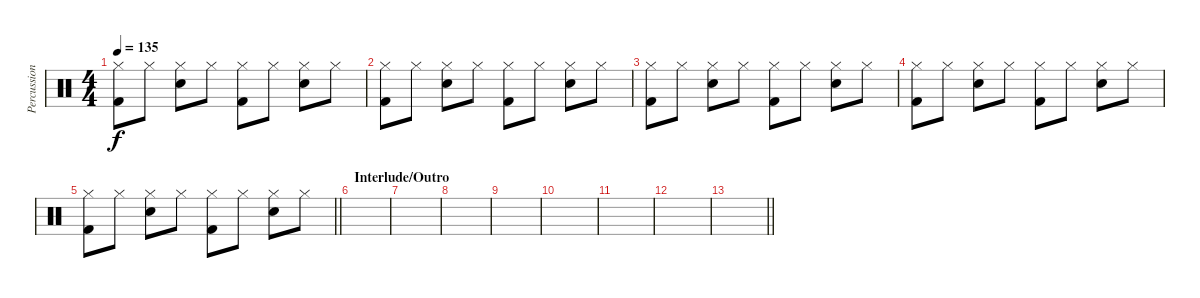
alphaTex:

\track ("Percussion" "Percussion") {instrument percussion}
\staff {score}
\articulation defaults
\ts (4 4)
\tempo 135
\clef neutral
\ks c
("Hi-Hat (closed)" "Kick (hit) 2").8{dy f} "Hi-Hat (closed)".8 ("Hi-Hat (closed)" "Snare (hit) 2").8 "Hi-Hat (closed)".8 ("Hi-Hat (closed)" "Kick (hit) 2").8 "Hi-Hat (closed)".8 ("Hi-Hat (closed)" "Snare (hit) 2").8 "Hi-Hat (closed)".8 |
("Hi-Hat (closed)" "Kick (hit) 2").8 "Hi-Hat (closed)".8 ("Hi-Hat (closed)" "Snare (hit) 2").8 "Hi-Hat (closed)".8 ("Hi-Hat (closed)" "Kick (hit) 2").8 "Hi-Hat (closed)".8 ("Hi-Hat (closed)" "Snare (hit) 2").8 "Hi-Hat (closed)".8 |
("Hi-Hat (closed)" "Kick (hit) 2").8 "Hi-Hat (closed)".8 ("Hi-Hat (closed)" "Snare (hit) 2").8 "Hi-Hat (closed)".8 ("Hi-Hat (closed)" "Kick (hit) 2").8 "Hi-Hat (closed)".8 ("Hi-Hat (closed)" "Snare (hit) 2").8 "Hi-Hat (closed)".8 |
("Hi-Hat (closed)" "Kick (hit) 2").8 "Hi-Hat (closed)".8 ("Hi-Hat (closed)" "Snare (hit) 2").8 "Hi-Hat (closed)".8 ("Hi-Hat (closed)" "Kick (hit) 2").8 "Hi-Hat (closed)".8 ("Hi-Hat (closed)" "Snare (hit) 2").8 "Hi-Hat (closed)".8 |
\barLineRight lightlight
("Hi-Hat (closed)" "Kick (hit) 2").8 "Hi-Hat (closed)".8 ("Hi-Hat (closed)" "Snare (hit) 2").8 "Hi-Hat (closed)".8 ("Hi-Hat (closed)" "Kick (hit) 2").8 "Hi-Hat (closed)".8 ("Hi-Hat (closed)" "Snare (hit) 2").8 "Hi-Hat (closed)".8 |
\section ("" "Interlude/Outro")
|
|
|
|
|
|
|
\barLineRight lightlight
